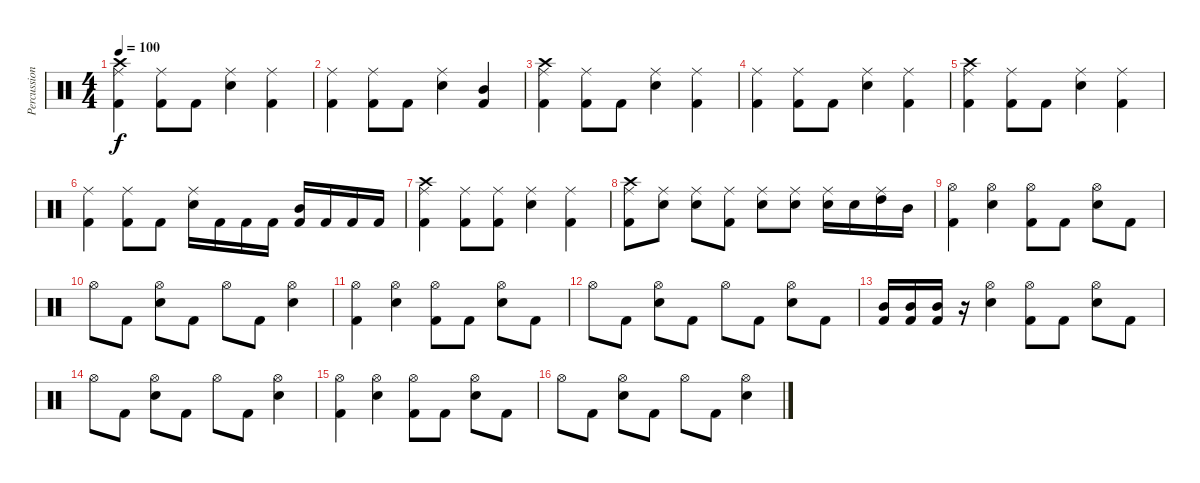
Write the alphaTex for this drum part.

\track ("Percussion" "Percussion") {instrument percussion}
\staff {score}
\articulation defaults
\ts (4 4)
\tempo 100
\clef neutral
\ks c
("Crash high (hit)" "Kick (hit) 2" "Ride (middle)").4{dy f} ("Kick (hit) 2" "Ride (middle)").8 "Kick (hit) 2".8 ("Snare (hit) 2" "Ride (middle)").4 ("Kick (hit) 2" "Ride (middle)").4 |
("Kick (hit) 2" "Ride (middle)").4 ("Kick (hit) 2" "Ride (middle)").8 "Kick (hit) 2".8 ("Snare (hit) 2" "Ride (middle)").4 ("Mid Tom (hit)" "Kick (hit) 2").4 |
("Crash high (hit)" "Kick (hit) 2" "Ride (middle)").4 ("Kick (hit) 2" "Ride (middle)").8 "Kick (hit) 2".8 ("Snare (hit) 2" "Ride (middle)").4 ("Kick (hit) 2" "Ride (middle)").4 |
("Kick (hit) 2" "Ride (middle)").4 ("Kick (hit) 2" "Ride (middle)").8 "Kick (hit) 2".8 ("Snare (hit) 2" "Ride (middle)").4 ("Kick (hit) 2" "Ride (middle)").4 |
("Crash high (hit)" "Kick (hit) 2" "Ride (middle)").4 ("Kick (hit) 2" "Ride (middle)").8 "Kick (hit) 2".8 ("Snare (hit) 2" "Ride (middle)").4 ("Kick (hit) 2" "Ride (middle)").4 |
("Kick (hit) 2" "Ride (middle)").4 ("Kick (hit) 2" "Ride (middle)").8 "Kick (hit) 2".8 ("Snare (hit) 2" "Ride (middle)").16 "Kick (hit) 2".16 "Kick (hit) 2".16 "Kick (hit) 2".16 ("Mid Tom (hit)" "Kick (hit) 2").16 "Kick (hit) 2".16 "Kick (hit) 2".16 "Kick (hit) 2".16 |
("Crash high (hit)" "Kick (hit) 2" "Ride (middle)").4 ("Kick (hit) 2" "Ride (middle)").8 ("Kick (hit) 2" "Ride (middle)").8 ("Snare (hit) 2" "Ride (middle)").4 ("Kick (hit) 2" "Ride (middle)").4 |
("Crash high (hit)" "Kick (hit) 2" "Ride (middle)").8 ("Ride (middle)" "Snare (hit) 2").8 ("Ride (middle)" "Snare (hit) 2").8 ("Ride (middle)" "Kick (hit) 2").8 ("Ride (middle)" "Snare (hit) 2").8 ("Ride (middle)" "Snare (hit) 2").8 ("Ride (middle)" "Snare (hit) 2").16 "Snare (hit) 2".16 ("Ride (middle)" "High Tom (hit)").16 "Mid Tom (hit)".16 |
("Kick (hit) 2" "Hi-Hat (open)").4 ("Snare (hit) 2" "Hi-Hat (open)").4 ("Kick (hit) 2" "Hi-Hat (open)").8 "Kick (hit) 2".8 ("Snare (hit) 2" "Hi-Hat (open)").8 "Kick (hit) 2".8 |
"Hi-Hat (open)".8 "Kick (hit) 2".8 ("Snare (hit) 2" "Hi-Hat (open)").8 "Kick (hit) 2".8 "Hi-Hat (open)".8 "Kick (hit) 2".8 ("Snare (hit) 2" "Hi-Hat (open)").4 |
("Kick (hit) 2" "Hi-Hat (open)").4 ("Snare (hit) 2" "Hi-Hat (open)").4 ("Kick (hit) 2" "Hi-Hat (open)").8 "Kick (hit) 2".8 ("Snare (hit) 2" "Hi-Hat (open)").8 "Kick (hit) 2".8 |
"Hi-Hat (open)".8 "Kick (hit) 2".8 ("Snare (hit) 2" "Hi-Hat (open)").8 "Kick (hit) 2".8 "Hi-Hat (open)".8 "Kick (hit) 2".8 ("Snare (hit) 2" "Hi-Hat (open)").8 "Kick (hit) 2".8 |
("Mid Tom (hit)" "Kick (hit) 2").16 ("Mid Tom (hit)" "Kick (hit) 2").16 ("Mid Tom (hit)" "Kick (hit) 2").16 r.16 ("Snare (hit) 2" "Hi-Hat (open)").4 ("Kick (hit) 2" "Hi-Hat (open)").8 "Kick (hit) 2".8 ("Snare (hit) 2" "Hi-Hat (open)").8 "Kick (hit) 2".8 |
"Hi-Hat (open)".8 "Kick (hit) 2".8 ("Snare (hit) 2" "Hi-Hat (open)").8 "Kick (hit) 2".8 "Hi-Hat (open)".8 "Kick (hit) 2".8 ("Snare (hit) 2" "Hi-Hat (open)").4 |
("Kick (hit) 2" "Hi-Hat (open)").4 ("Snare (hit) 2" "Hi-Hat (open)").4 ("Kick (hit) 2" "Hi-Hat (open)").8 "Kick (hit) 2".8 ("Snare (hit) 2" "Hi-Hat (open)").8 "Kick (hit) 2".8 |
"Hi-Hat (open)".8 "Kick (hit) 2".8 ("Snare (hit) 2" "Hi-Hat (open)").8 "Kick (hit) 2".8 "Hi-Hat (open)".8 "Kick (hit) 2".8 ("Snare (hit) 2" "Hi-Hat (open)").4
